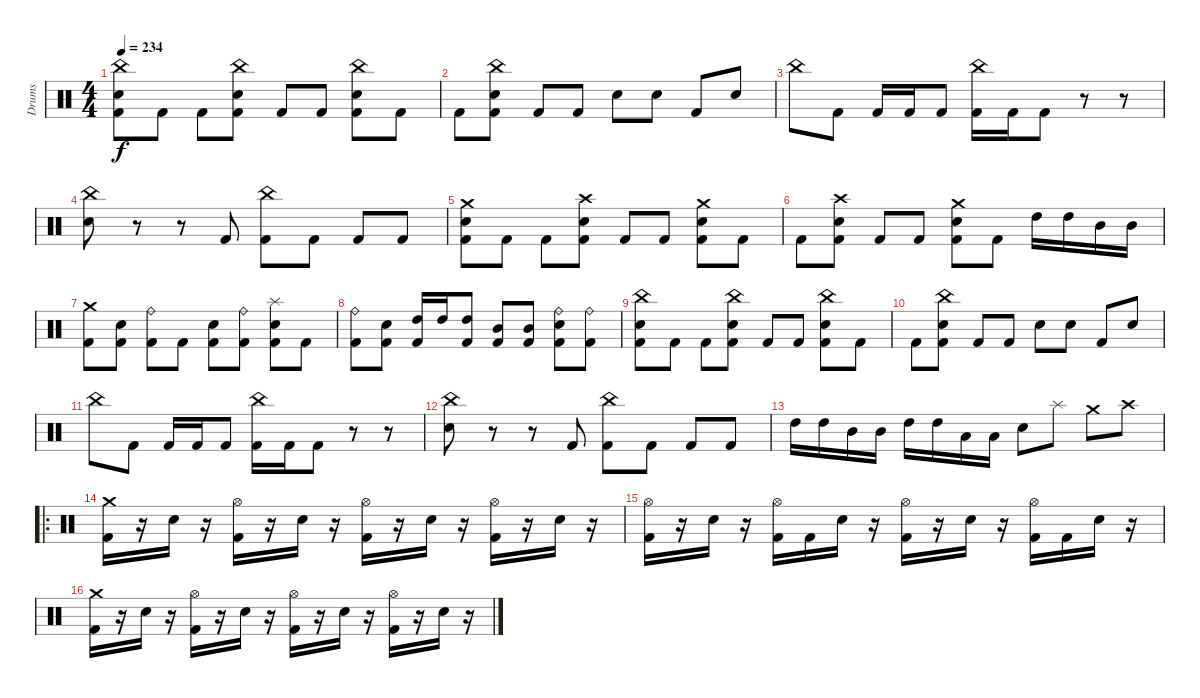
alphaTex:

\track ("Drums" "Drums") {instrument percussion}
\staff {score}
\articulation defaults
\ts (4 4)
\tempo 234
\clef neutral
\ks c
("China (hit)" "Electric Snare (hit)" "Kick (hit) 2").8{dy f} "Kick (hit) 2".8 "Kick (hit) 2".8 ("China (hit)" "Electric Snare (hit)" "Kick (hit) 2").8 "Kick (hit) 2".8 "Kick (hit) 2".8 ("China (hit)" "Electric Snare (hit)" "Kick (hit) 2").8 "Kick (hit) 2".8 |
"Kick (hit) 2".8 ("China (hit)" "Electric Snare (hit)" "Kick (hit) 2").8 "Kick (hit) 2".8 "Kick (hit) 2".8 "Electric Snare (hit)".8 "Electric Snare (hit)".8 "Kick (hit) 2".8 "Electric Snare (hit)".8 |
"China (hit)".8 "Kick (hit) 2".8 "Kick (hit) 2".16 "Kick (hit) 2".16 "Kick (hit) 2".8 ("China (hit)" "Kick (hit) 2").16 "Kick (hit) 2".16 "Kick (hit) 2".8 r.8 r.8 |
("China (hit)" "Electric Snare (hit)").8 r.8 r.8 "Kick (hit) 2".8 ("China (hit)" "Kick (hit) 2").8 "Kick (hit) 2".8 "Kick (hit) 2".8 "Kick (hit) 2".8 |
("Crash medium (hit)" "Electric Snare (hit)" "Kick (hit) 2").8 "Kick (hit) 2".8 "Kick (hit) 2".8 ("Crash high (hit)" "Electric Snare (hit)" "Kick (hit) 2").8 "Kick (hit) 2".8 "Kick (hit) 2".8 ("Crash medium (hit)" "Electric Snare (hit)" "Kick (hit) 2").8 "Kick (hit) 2".8 |
"Kick (hit) 2".8 ("Crash high (hit)" "Electric Snare (hit)" "Kick (hit) 2").8 "Kick (hit) 2".8 "Kick (hit) 2".8 ("Crash medium (hit)" "Electric Snare (hit)" "Kick (hit) 2").8 "Kick (hit) 2".8 "High Tom (hit)".16 "High Tom (hit)".16 "Mid Tom (hit)".16 "Mid Tom (hit)".16 |
("Crash medium (hit)" "Kick (hit) 2").8 ("Electric Snare (hit)" "Kick (hit) 2").8 ("Ride (bell)" "Kick (hit) 2").8 "Kick (hit) 2".8 ("Electric Snare (hit)" "Kick (hit) 2").8 ("Ride (bell)" "Kick (hit) 2").8 ("Splash (hit)" "Electric Snare (hit)" "Kick (hit) 2").8 "Kick (hit) 2".8 |
("Ride (bell)" "Kick (hit) 2").8 ("Electric Snare (hit)" "Kick (hit) 2").8 ("High Tom (hit)" "Kick (hit) 2").16 "High Tom (hit)".16 ("High Tom (hit)" "Kick (hit) 2").8 ("Mid Tom (hit)" "Kick (hit) 2").8 ("Mid Tom (hit)" "Kick (hit) 2").8 ("Ride (bell)" "Electric Snare (hit)" "Kick (hit) 2").8 ("Ride (bell)" "Kick (hit) 2").8 |
("China (hit)" "Electric Snare (hit)" "Kick (hit) 2").8 "Kick (hit) 2".8 "Kick (hit) 2".8 ("China (hit)" "Electric Snare (hit)" "Kick (hit) 2").8 "Kick (hit) 2".8 "Kick (hit) 2".8 ("China (hit)" "Electric Snare (hit)" "Kick (hit) 2").8 "Kick (hit) 2".8 |
"Kick (hit) 2".8 ("China (hit)" "Electric Snare (hit)" "Kick (hit) 2").8 "Kick (hit) 2".8 "Kick (hit) 2".8 "Electric Snare (hit)".8 "Electric Snare (hit)".8 "Kick (hit) 2".8 "Electric Snare (hit)".8 |
"China (hit)".8 "Kick (hit) 2".8 "Kick (hit) 2".16 "Kick (hit) 2".16 "Kick (hit) 2".8 ("China (hit)" "Kick (hit) 2").16 "Kick (hit) 2".16 "Kick (hit) 2".8 r.8 r.8 |
("China (hit)" "Electric Snare (hit)").8 r.8 r.8 "Kick (hit) 2".8 ("China (hit)" "Kick (hit) 2").8 "Kick (hit) 2".8 "Kick (hit) 2".8 "Kick (hit) 2".8 |
"High Tom (hit)".16 "High Tom (hit)".16 "Mid Tom (hit)".16 "Mid Tom (hit)".16 "High Tom (hit)".16 "High Tom (hit)".16 "Low Tom (hit)".16 "Low Tom (hit)".16 "Electric Snare (hit)".8 "Splash (hit)".8 "Crash medium (hit)".8 "Crash high (hit)".8 |
\ro
("Crash medium (hit)" "Kick (hit) 2").16 r.16 "Electric Snare (hit)".16 r.16 ("Hi-Hat (open)" "Kick (hit) 2").16 r.16 "Electric Snare (hit)".16 r.16 ("Hi-Hat (open)" "Kick (hit) 2").16 r.16 "Electric Snare (hit)".16 r.16 ("Hi-Hat (open)" "Kick (hit) 2").16 r.16 "Electric Snare (hit)".16 r.16 |
("Hi-Hat (open)" "Kick (hit) 2").16 r.16 "Electric Snare (hit)".16 r.16 ("Hi-Hat (open)" "Kick (hit) 2").16 "Kick (hit) 2".16 "Electric Snare (hit)".16 r.16 ("Hi-Hat (open)" "Kick (hit) 2").16 r.16 "Electric Snare (hit)".16 r.16 ("Hi-Hat (open)" "Kick (hit) 2").16 "Kick (hit) 2".16 "Electric Snare (hit)".16 r.16 |
("Crash medium (hit)" "Kick (hit) 2").16 r.16 "Electric Snare (hit)".16 r.16 ("Hi-Hat (open)" "Kick (hit) 2").16 r.16 "Electric Snare (hit)".16 r.16 ("Hi-Hat (open)" "Kick (hit) 2").16 r.16 "Electric Snare (hit)".16 r.16 ("Hi-Hat (open)" "Kick (hit) 2").16 r.16 "Electric Snare (hit)".16 r.16
